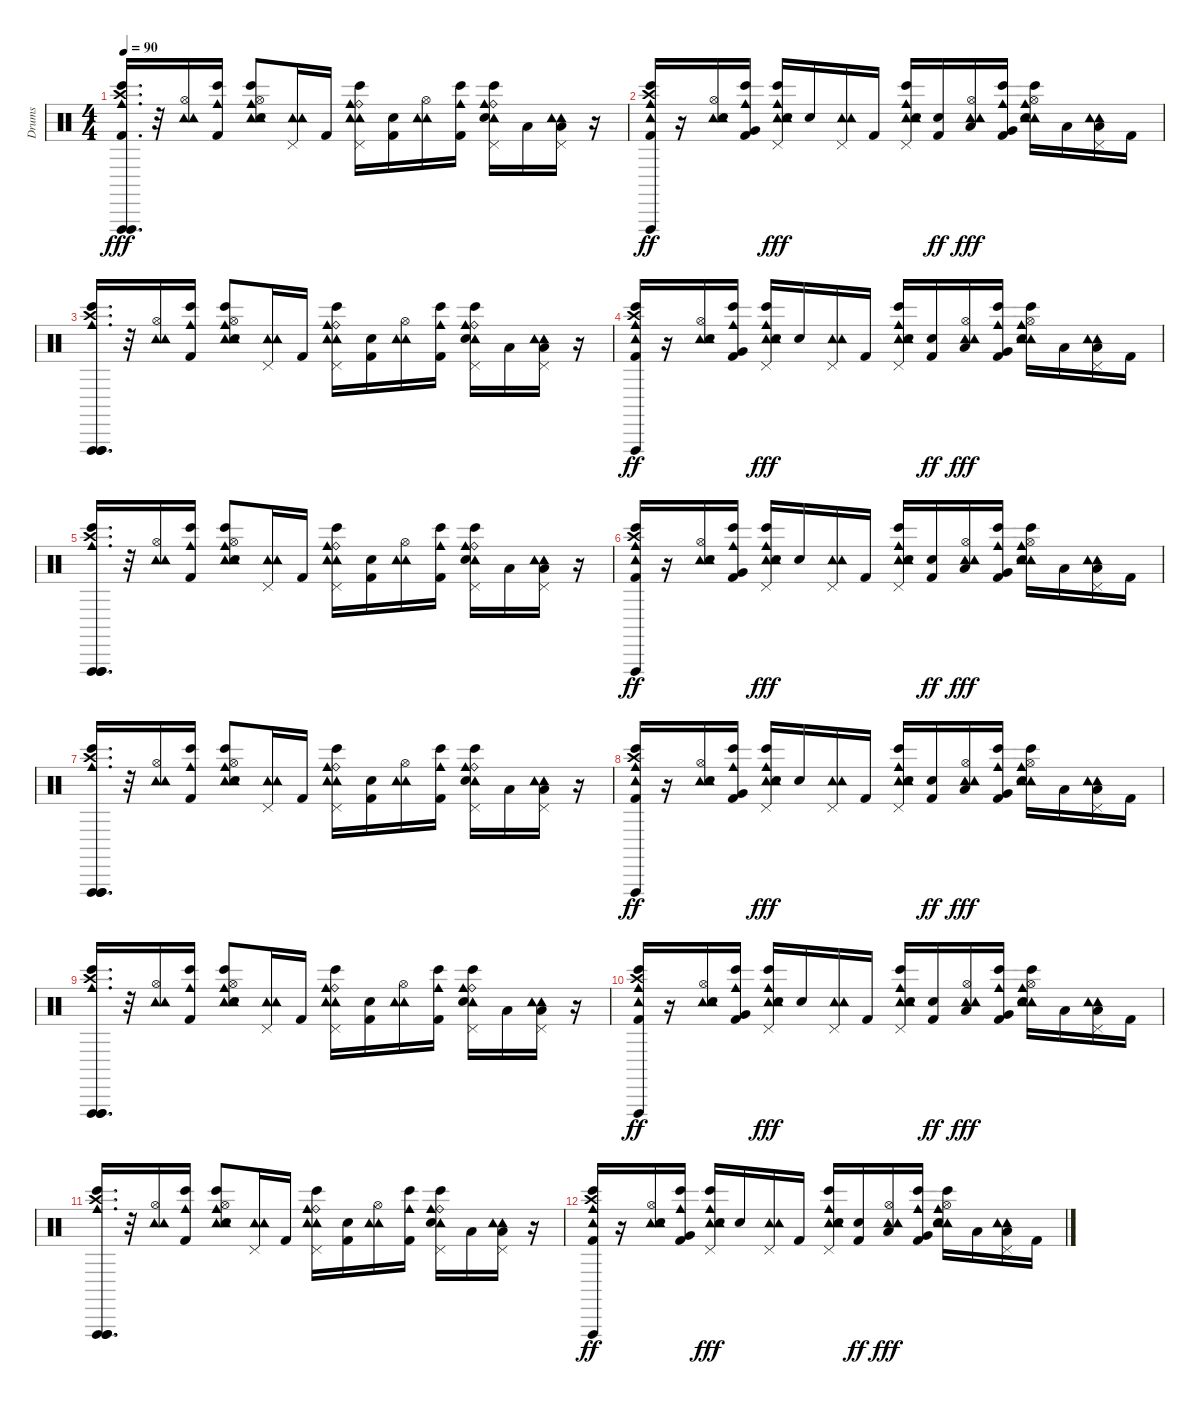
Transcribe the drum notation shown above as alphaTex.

\track ("Drums" "Drums") {instrument percussion}
\staff {score}
\articulation defaults
\ts (4 4)
\tempo 90
\clef neutral
\ks c
("Vibraslap (hit)" "Vibraslap (hit)" "Cowbell medium (hit)" "Bongo High (hit)" "Crash high (hit)" "Kick (hit) 2").16{d dy fff volume 13 balance 9} r.32 ("Tambourine (hit)" "Hi-Hat (open)" "Tambourine (hit)").16 ("Kick (hit) 2" "Bongo High (hit)" "Cowbell medium (hit)").16 ("Tambourine (hit)" "Hi-Hat (open)" "Cowbell medium (hit)" "Electric Snare (hit)" "Bongo High (hit)" "Tambourine (hit)").8 ("Tambourine (hit)" "Pedal Hi-Hat (hit)" "Tambourine (hit)").16 "Kick (hit) 2".16 ("Tambourine (hit)" "Pedal Hi-Hat (hit)" "Ride (bell)" "Cowbell medium (hit)" "Bongo High (hit)" "Tambourine (hit)").16 ("Kick (hit) 2" "Electric Snare (hit)").16 ("Tambourine (hit)" "Tambourine (hit)" "Hi-Hat (open)").16 ("Cowbell medium (hit)" "Kick (hit) 2" "Bongo High (hit)").16 ("Tambourine (hit)" "Pedal Hi-Hat (hit)" "Ride (bell)" "Cowbell medium (hit)" "Electric Snare (hit)" "Bongo High (hit)").16 "Low Tom (hit)".16 ("Tambourine (hit)" "Pedal Hi-Hat (hit)" "Tambourine (hit)" "Low Floor Tom (hit)").16 r.16 |
("Tambourine (hit)" "Vibraslap (hit)" "Cowbell medium (hit)" "Bongo High (hit)" "Kick (hit) 2" "Crash high (hit)").16{dy ff} r.16 ("Tambourine (hit)" "Hi-Hat (open)" "Tambourine (hit)" "Electric Snare (hit)").16 ("Kick (hit) 2" "Bongo High (hit)" "Cowbell medium (hit)" "Very Low Tom (hit)").16 ("Tambourine (hit)" "Pedal Hi-Hat (hit)" "Cowbell medium (hit)" "Electric Snare (hit)" "Bongo High (hit)" "Tambourine (hit)").16{dy fff} "Electric Snare (hit)".16 ("Tambourine (hit)" "Pedal Hi-Hat (hit)" "Tambourine (hit)").16 "Kick (hit) 2".16 ("Tambourine (hit)" "Pedal Hi-Hat (hit)" "Cowbell medium (hit)" "Bongo High (hit)" "Tambourine (hit)" "Electric Snare (hit)").16 ("Kick (hit) 2" "Electric Snare (hit)").16{dy ff} ("Tambourine (hit)" "Low Tom (hit)" "Tambourine (hit)" "Hi-Hat (open)").16{dy fff} ("Cowbell medium (hit)" "Kick (hit) 2" "Bongo High (hit)" "Very Low Tom (hit)").16 ("Tambourine (hit)" "Hi-Hat (open)" "Cowbell medium (hit)" "Electric Snare (hit)" "Bongo High (hit)" "Tambourine (hit)").16 "Low Tom (hit)".16 ("Tambourine (hit)" "Pedal Hi-Hat (hit)" "Tambourine (hit)" "Low Floor Tom (hit)").16 "Kick (hit) 2".16 |
("Vibraslap (hit)" "Vibraslap (hit)" "Vibraslap (hit)" "Cowbell medium (hit)" "Bongo High (hit)" "Crash high (hit)").16{d} r.32 ("Tambourine (hit)" "Hi-Hat (open)" "Tambourine (hit)").16 ("Kick (hit) 2" "Bongo High (hit)" "Cowbell medium (hit)").16 ("Tambourine (hit)" "Hi-Hat (open)" "Cowbell medium (hit)" "Electric Snare (hit)" "Bongo High (hit)" "Tambourine (hit)").8 ("Tambourine (hit)" "Pedal Hi-Hat (hit)" "Tambourine (hit)").16 "Kick (hit) 2".16 ("Tambourine (hit)" "Pedal Hi-Hat (hit)" "Ride (bell)" "Cowbell medium (hit)" "Bongo High (hit)" "Tambourine (hit)").16 ("Kick (hit) 2" "Electric Snare (hit)").16 ("Tambourine (hit)" "Tambourine (hit)" "Hi-Hat (open)").16 ("Cowbell medium (hit)" "Kick (hit) 2" "Bongo High (hit)").16 ("Tambourine (hit)" "Pedal Hi-Hat (hit)" "Ride (bell)" "Cowbell medium (hit)" "Electric Snare (hit)" "Bongo High (hit)").16 "Low Tom (hit)".16 ("Tambourine (hit)" "Pedal Hi-Hat (hit)" "Tambourine (hit)" "Low Floor Tom (hit)").16 r.16 |
("Tambourine (hit)" "Vibraslap (hit)" "Cowbell medium (hit)" "Bongo High (hit)" "Kick (hit) 2" "Crash high (hit)").16{dy ff} r.16 ("Tambourine (hit)" "Hi-Hat (open)" "Tambourine (hit)" "Electric Snare (hit)").16 ("Kick (hit) 2" "Bongo High (hit)" "Cowbell medium (hit)" "Very Low Tom (hit)").16 ("Tambourine (hit)" "Pedal Hi-Hat (hit)" "Cowbell medium (hit)" "Electric Snare (hit)" "Bongo High (hit)" "Tambourine (hit)").16{dy fff} "Electric Snare (hit)".16 ("Tambourine (hit)" "Pedal Hi-Hat (hit)" "Tambourine (hit)").16 "Kick (hit) 2".16 ("Tambourine (hit)" "Pedal Hi-Hat (hit)" "Cowbell medium (hit)" "Bongo High (hit)" "Tambourine (hit)" "Electric Snare (hit)").16 ("Kick (hit) 2" "Electric Snare (hit)").16{dy ff} ("Tambourine (hit)" "Low Tom (hit)" "Tambourine (hit)" "Hi-Hat (open)").16{dy fff} ("Cowbell medium (hit)" "Kick (hit) 2" "Bongo High (hit)" "Very Low Tom (hit)").16 ("Tambourine (hit)" "Hi-Hat (open)" "Cowbell medium (hit)" "Electric Snare (hit)" "Bongo High (hit)" "Tambourine (hit)").16 "Low Tom (hit)".16 ("Tambourine (hit)" "Pedal Hi-Hat (hit)" "Tambourine (hit)" "Low Floor Tom (hit)").16 "Kick (hit) 2".16 |
("Vibraslap (hit)" "Vibraslap (hit)" "Vibraslap (hit)" "Cowbell medium (hit)" "Bongo High (hit)" "Crash high (hit)").16{d} r.32 ("Tambourine (hit)" "Hi-Hat (open)" "Tambourine (hit)").16 ("Kick (hit) 2" "Bongo High (hit)" "Cowbell medium (hit)").16 ("Tambourine (hit)" "Hi-Hat (open)" "Cowbell medium (hit)" "Electric Snare (hit)" "Bongo High (hit)" "Tambourine (hit)").8 ("Tambourine (hit)" "Pedal Hi-Hat (hit)" "Tambourine (hit)").16 "Kick (hit) 2".16 ("Tambourine (hit)" "Pedal Hi-Hat (hit)" "Ride (bell)" "Cowbell medium (hit)" "Bongo High (hit)" "Tambourine (hit)").16 ("Kick (hit) 2" "Electric Snare (hit)").16 ("Tambourine (hit)" "Tambourine (hit)" "Hi-Hat (open)").16 ("Cowbell medium (hit)" "Kick (hit) 2" "Bongo High (hit)").16 ("Tambourine (hit)" "Pedal Hi-Hat (hit)" "Ride (bell)" "Cowbell medium (hit)" "Electric Snare (hit)" "Bongo High (hit)").16 "Low Tom (hit)".16 ("Tambourine (hit)" "Pedal Hi-Hat (hit)" "Tambourine (hit)" "Low Floor Tom (hit)").16 r.16 |
("Tambourine (hit)" "Vibraslap (hit)" "Cowbell medium (hit)" "Bongo High (hit)" "Kick (hit) 2" "Crash high (hit)").16{dy ff} r.16 ("Tambourine (hit)" "Hi-Hat (open)" "Tambourine (hit)" "Electric Snare (hit)").16 ("Kick (hit) 2" "Bongo High (hit)" "Cowbell medium (hit)" "Very Low Tom (hit)").16 ("Tambourine (hit)" "Pedal Hi-Hat (hit)" "Cowbell medium (hit)" "Electric Snare (hit)" "Bongo High (hit)" "Tambourine (hit)").16{dy fff} "Electric Snare (hit)".16 ("Tambourine (hit)" "Pedal Hi-Hat (hit)" "Tambourine (hit)").16 "Kick (hit) 2".16 ("Tambourine (hit)" "Pedal Hi-Hat (hit)" "Cowbell medium (hit)" "Bongo High (hit)" "Tambourine (hit)" "Electric Snare (hit)").16 ("Kick (hit) 2" "Electric Snare (hit)").16{dy ff} ("Tambourine (hit)" "Low Tom (hit)" "Tambourine (hit)" "Hi-Hat (open)").16{dy fff} ("Cowbell medium (hit)" "Kick (hit) 2" "Bongo High (hit)" "Very Low Tom (hit)").16 ("Tambourine (hit)" "Hi-Hat (open)" "Cowbell medium (hit)" "Electric Snare (hit)" "Bongo High (hit)" "Tambourine (hit)").16 "Low Tom (hit)".16 ("Tambourine (hit)" "Pedal Hi-Hat (hit)" "Tambourine (hit)" "Low Floor Tom (hit)").16 "Kick (hit) 2".16 |
("Vibraslap (hit)" "Vibraslap (hit)" "Vibraslap (hit)" "Cowbell medium (hit)" "Bongo High (hit)" "Crash high (hit)").16{d} r.32 ("Tambourine (hit)" "Hi-Hat (open)" "Tambourine (hit)").16 ("Kick (hit) 2" "Bongo High (hit)" "Cowbell medium (hit)").16 ("Tambourine (hit)" "Hi-Hat (open)" "Cowbell medium (hit)" "Electric Snare (hit)" "Bongo High (hit)" "Tambourine (hit)").8 ("Tambourine (hit)" "Pedal Hi-Hat (hit)" "Tambourine (hit)").16 "Kick (hit) 2".16 ("Tambourine (hit)" "Pedal Hi-Hat (hit)" "Ride (bell)" "Cowbell medium (hit)" "Bongo High (hit)" "Tambourine (hit)").16 ("Kick (hit) 2" "Electric Snare (hit)").16 ("Tambourine (hit)" "Tambourine (hit)" "Hi-Hat (open)").16 ("Cowbell medium (hit)" "Kick (hit) 2" "Bongo High (hit)").16 ("Tambourine (hit)" "Pedal Hi-Hat (hit)" "Ride (bell)" "Cowbell medium (hit)" "Electric Snare (hit)" "Bongo High (hit)").16 "Low Tom (hit)".16 ("Tambourine (hit)" "Pedal Hi-Hat (hit)" "Tambourine (hit)" "Low Floor Tom (hit)").16 r.16 |
("Tambourine (hit)" "Vibraslap (hit)" "Cowbell medium (hit)" "Bongo High (hit)" "Kick (hit) 2" "Crash high (hit)").16{dy ff} r.16 ("Tambourine (hit)" "Hi-Hat (open)" "Tambourine (hit)" "Electric Snare (hit)").16 ("Kick (hit) 2" "Bongo High (hit)" "Cowbell medium (hit)" "Very Low Tom (hit)").16 ("Tambourine (hit)" "Pedal Hi-Hat (hit)" "Cowbell medium (hit)" "Electric Snare (hit)" "Bongo High (hit)" "Tambourine (hit)").16{dy fff} "Electric Snare (hit)".16 ("Tambourine (hit)" "Pedal Hi-Hat (hit)" "Tambourine (hit)").16 "Kick (hit) 2".16 ("Tambourine (hit)" "Pedal Hi-Hat (hit)" "Cowbell medium (hit)" "Bongo High (hit)" "Tambourine (hit)" "Electric Snare (hit)").16 ("Kick (hit) 2" "Electric Snare (hit)").16{dy ff} ("Tambourine (hit)" "Low Tom (hit)" "Tambourine (hit)" "Hi-Hat (open)").16{dy fff} ("Cowbell medium (hit)" "Kick (hit) 2" "Bongo High (hit)" "Very Low Tom (hit)").16 ("Tambourine (hit)" "Hi-Hat (open)" "Cowbell medium (hit)" "Electric Snare (hit)" "Bongo High (hit)" "Tambourine (hit)").16 "Low Tom (hit)".16 ("Tambourine (hit)" "Pedal Hi-Hat (hit)" "Tambourine (hit)" "Low Floor Tom (hit)").16 "Kick (hit) 2".16 |
("Vibraslap (hit)" "Vibraslap (hit)" "Vibraslap (hit)" "Cowbell medium (hit)" "Bongo High (hit)" "Crash high (hit)").16{d volume 0} r.32 ("Tambourine (hit)" "Hi-Hat (open)" "Tambourine (hit)").16 ("Kick (hit) 2" "Bongo High (hit)" "Cowbell medium (hit)").16 ("Tambourine (hit)" "Hi-Hat (open)" "Cowbell medium (hit)" "Electric Snare (hit)" "Bongo High (hit)" "Tambourine (hit)").8 ("Tambourine (hit)" "Pedal Hi-Hat (hit)" "Tambourine (hit)").16 "Kick (hit) 2".16 ("Tambourine (hit)" "Pedal Hi-Hat (hit)" "Ride (bell)" "Cowbell medium (hit)" "Bongo High (hit)" "Tambourine (hit)").16 ("Kick (hit) 2" "Electric Snare (hit)").16 ("Tambourine (hit)" "Tambourine (hit)" "Hi-Hat (open)").16 ("Cowbell medium (hit)" "Kick (hit) 2" "Bongo High (hit)").16 ("Tambourine (hit)" "Pedal Hi-Hat (hit)" "Ride (bell)" "Cowbell medium (hit)" "Electric Snare (hit)" "Bongo High (hit)").16 "Low Tom (hit)".16 ("Tambourine (hit)" "Pedal Hi-Hat (hit)" "Tambourine (hit)" "Low Floor Tom (hit)").16 r.16 |
("Tambourine (hit)" "Vibraslap (hit)" "Cowbell medium (hit)" "Bongo High (hit)" "Kick (hit) 2" "Crash high (hit)").16{dy ff} r.16 ("Tambourine (hit)" "Hi-Hat (open)" "Tambourine (hit)" "Electric Snare (hit)").16 ("Kick (hit) 2" "Bongo High (hit)" "Cowbell medium (hit)" "Very Low Tom (hit)").16 ("Tambourine (hit)" "Pedal Hi-Hat (hit)" "Cowbell medium (hit)" "Electric Snare (hit)" "Bongo High (hit)" "Tambourine (hit)").16{dy fff} "Electric Snare (hit)".16 ("Tambourine (hit)" "Pedal Hi-Hat (hit)" "Tambourine (hit)").16 "Kick (hit) 2".16 ("Tambourine (hit)" "Pedal Hi-Hat (hit)" "Cowbell medium (hit)" "Bongo High (hit)" "Tambourine (hit)" "Electric Snare (hit)").16 ("Kick (hit) 2" "Electric Snare (hit)").16{dy ff} ("Tambourine (hit)" "Low Tom (hit)" "Tambourine (hit)" "Hi-Hat (open)").16{dy fff} ("Cowbell medium (hit)" "Kick (hit) 2" "Bongo High (hit)" "Very Low Tom (hit)").16 ("Tambourine (hit)" "Hi-Hat (open)" "Cowbell medium (hit)" "Electric Snare (hit)" "Bongo High (hit)" "Tambourine (hit)").16 "Low Tom (hit)".16 ("Tambourine (hit)" "Pedal Hi-Hat (hit)" "Tambourine (hit)" "Low Floor Tom (hit)").16 "Kick (hit) 2".16 |
("Vibraslap (hit)" "Vibraslap (hit)" "Vibraslap (hit)" "Cowbell medium (hit)" "Bongo High (hit)" "Crash high (hit)").16{d} r.32 ("Tambourine (hit)" "Hi-Hat (open)" "Tambourine (hit)").16 ("Kick (hit) 2" "Bongo High (hit)" "Cowbell medium (hit)").16 ("Tambourine (hit)" "Hi-Hat (open)" "Cowbell medium (hit)" "Electric Snare (hit)" "Bongo High (hit)" "Tambourine (hit)").8 ("Tambourine (hit)" "Pedal Hi-Hat (hit)" "Tambourine (hit)").16 "Kick (hit) 2".16 ("Tambourine (hit)" "Pedal Hi-Hat (hit)" "Ride (bell)" "Cowbell medium (hit)" "Bongo High (hit)" "Tambourine (hit)").16 ("Kick (hit) 2" "Electric Snare (hit)").16 ("Tambourine (hit)" "Tambourine (hit)" "Hi-Hat (open)").16 ("Cowbell medium (hit)" "Kick (hit) 2" "Bongo High (hit)").16 ("Tambourine (hit)" "Pedal Hi-Hat (hit)" "Ride (bell)" "Cowbell medium (hit)" "Electric Snare (hit)" "Bongo High (hit)").16 "Low Tom (hit)".16 ("Tambourine (hit)" "Pedal Hi-Hat (hit)" "Tambourine (hit)" "Low Floor Tom (hit)").16 r.16 |
("Tambourine (hit)" "Vibraslap (hit)" "Cowbell medium (hit)" "Bongo High (hit)" "Kick (hit) 2" "Crash high (hit)").16{dy ff} r.16 ("Tambourine (hit)" "Hi-Hat (open)" "Tambourine (hit)" "Electric Snare (hit)").16 ("Kick (hit) 2" "Bongo High (hit)" "Cowbell medium (hit)" "Very Low Tom (hit)").16 ("Tambourine (hit)" "Pedal Hi-Hat (hit)" "Cowbell medium (hit)" "Electric Snare (hit)" "Bongo High (hit)" "Tambourine (hit)").16{dy fff} "Electric Snare (hit)".16 ("Tambourine (hit)" "Pedal Hi-Hat (hit)" "Tambourine (hit)").16 "Kick (hit) 2".16 ("Tambourine (hit)" "Pedal Hi-Hat (hit)" "Cowbell medium (hit)" "Bongo High (hit)" "Tambourine (hit)" "Electric Snare (hit)").16 ("Kick (hit) 2" "Electric Snare (hit)").16{dy ff} ("Tambourine (hit)" "Low Tom (hit)" "Tambourine (hit)" "Hi-Hat (open)").16{dy fff} ("Cowbell medium (hit)" "Kick (hit) 2" "Bongo High (hit)" "Very Low Tom (hit)").16 ("Tambourine (hit)" "Hi-Hat (open)" "Cowbell medium (hit)" "Electric Snare (hit)" "Bongo High (hit)" "Tambourine (hit)").16 "Low Tom (hit)".16 ("Tambourine (hit)" "Pedal Hi-Hat (hit)" "Tambourine (hit)" "Low Floor Tom (hit)").16 "Kick (hit) 2".16
